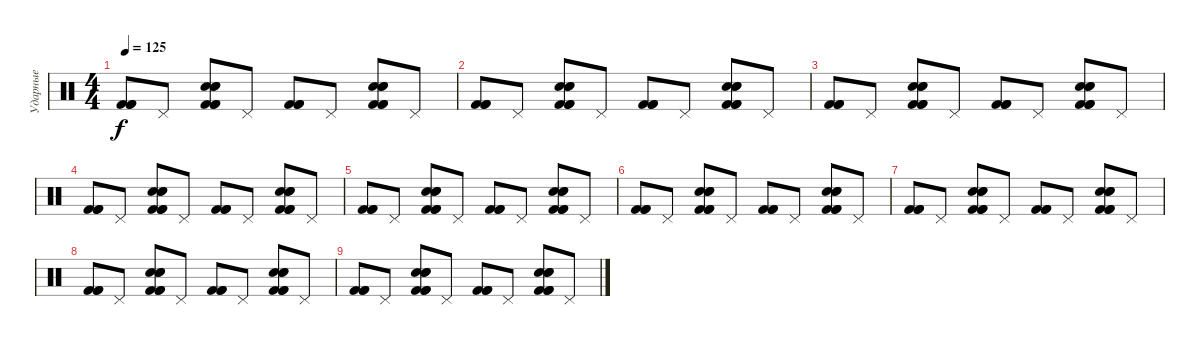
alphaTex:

\track ("Ударные" "Ударные") {instrument percussion}
\staff {score}
\articulation defaults
\ts (4 4)
\tempo 125
\clef neutral
\ks c
("Kick (hit) 2" "Kick (hit) 2" "Kick (hit) 2").8{dy f} "Pedal Hi-Hat (hit)".8 ("Snare (hit) 2" "Kick (hit) 2" "Snare (hit) 2" "Kick (hit) 2" "Snare (hit) 2" "Kick (hit) 2").8 "Pedal Hi-Hat (hit)".8 ("Kick (hit) 2" "Kick (hit) 2" "Kick (hit) 2").8 "Pedal Hi-Hat (hit)".8 ("Snare (hit) 2" "Kick (hit) 2" "Snare (hit) 2" "Kick (hit) 2" "Snare (hit) 2" "Kick (hit) 2").8 "Pedal Hi-Hat (hit)".8 |
("Kick (hit) 2" "Kick (hit) 2" "Kick (hit) 2").8 "Pedal Hi-Hat (hit)".8 ("Snare (hit) 2" "Kick (hit) 2" "Snare (hit) 2" "Kick (hit) 2" "Snare (hit) 2" "Kick (hit) 2").8 "Pedal Hi-Hat (hit)".8 ("Kick (hit) 2" "Kick (hit) 2" "Kick (hit) 2").8 "Pedal Hi-Hat (hit)".8 ("Snare (hit) 2" "Kick (hit) 2" "Snare (hit) 2" "Kick (hit) 2" "Snare (hit) 2" "Kick (hit) 2").8 "Pedal Hi-Hat (hit)".8 |
("Kick (hit) 2" "Kick (hit) 2" "Kick (hit) 2").8 "Pedal Hi-Hat (hit)".8 ("Snare (hit) 2" "Kick (hit) 2" "Snare (hit) 2" "Kick (hit) 2" "Snare (hit) 2" "Kick (hit) 2").8 "Pedal Hi-Hat (hit)".8 ("Kick (hit) 2" "Kick (hit) 2" "Kick (hit) 2").8 "Pedal Hi-Hat (hit)".8 ("Snare (hit) 2" "Kick (hit) 2" "Snare (hit) 2" "Kick (hit) 2" "Snare (hit) 2" "Kick (hit) 2").8 "Pedal Hi-Hat (hit)".8 |
("Kick (hit) 2" "Kick (hit) 2" "Kick (hit) 2").8 "Pedal Hi-Hat (hit)".8 ("Snare (hit) 2" "Kick (hit) 2" "Snare (hit) 2" "Kick (hit) 2" "Snare (hit) 2" "Kick (hit) 2").8 "Pedal Hi-Hat (hit)".8 ("Kick (hit) 2" "Kick (hit) 2" "Kick (hit) 2").8 "Pedal Hi-Hat (hit)".8 ("Snare (hit) 2" "Kick (hit) 2" "Snare (hit) 2" "Kick (hit) 2" "Snare (hit) 2" "Kick (hit) 2").8 "Pedal Hi-Hat (hit)".8 |
("Kick (hit) 2" "Kick (hit) 2" "Kick (hit) 2").8 "Pedal Hi-Hat (hit)".8 ("Snare (hit) 2" "Kick (hit) 2" "Snare (hit) 2" "Kick (hit) 2" "Snare (hit) 2" "Kick (hit) 2").8 "Pedal Hi-Hat (hit)".8 ("Kick (hit) 2" "Kick (hit) 2" "Kick (hit) 2").8 "Pedal Hi-Hat (hit)".8 ("Snare (hit) 2" "Kick (hit) 2" "Snare (hit) 2" "Kick (hit) 2" "Snare (hit) 2" "Kick (hit) 2").8 "Pedal Hi-Hat (hit)".8 |
("Kick (hit) 2" "Kick (hit) 2" "Kick (hit) 2").8 "Pedal Hi-Hat (hit)".8 ("Snare (hit) 2" "Kick (hit) 2" "Snare (hit) 2" "Kick (hit) 2" "Snare (hit) 2" "Kick (hit) 2").8 "Pedal Hi-Hat (hit)".8 ("Kick (hit) 2" "Kick (hit) 2" "Kick (hit) 2").8 "Pedal Hi-Hat (hit)".8 ("Snare (hit) 2" "Kick (hit) 2" "Snare (hit) 2" "Kick (hit) 2" "Snare (hit) 2" "Kick (hit) 2").8 "Pedal Hi-Hat (hit)".8 |
("Kick (hit) 2" "Kick (hit) 2" "Kick (hit) 2").8 "Pedal Hi-Hat (hit)".8 ("Snare (hit) 2" "Kick (hit) 2" "Snare (hit) 2" "Kick (hit) 2" "Snare (hit) 2" "Kick (hit) 2").8 "Pedal Hi-Hat (hit)".8 ("Kick (hit) 2" "Kick (hit) 2" "Kick (hit) 2").8 "Pedal Hi-Hat (hit)".8 ("Snare (hit) 2" "Kick (hit) 2" "Snare (hit) 2" "Kick (hit) 2" "Snare (hit) 2" "Kick (hit) 2").8 "Pedal Hi-Hat (hit)".8 |
("Kick (hit) 2" "Kick (hit) 2" "Kick (hit) 2").8 "Pedal Hi-Hat (hit)".8 ("Snare (hit) 2" "Kick (hit) 2" "Snare (hit) 2" "Kick (hit) 2" "Snare (hit) 2" "Kick (hit) 2").8 "Pedal Hi-Hat (hit)".8 ("Kick (hit) 2" "Kick (hit) 2" "Kick (hit) 2").8 "Pedal Hi-Hat (hit)".8 ("Snare (hit) 2" "Kick (hit) 2" "Snare (hit) 2" "Kick (hit) 2" "Snare (hit) 2" "Kick (hit) 2").8 "Pedal Hi-Hat (hit)".8 |
("Kick (hit) 2" "Kick (hit) 2" "Kick (hit) 2").8 "Pedal Hi-Hat (hit)".8 ("Snare (hit) 2" "Kick (hit) 2" "Snare (hit) 2" "Kick (hit) 2" "Snare (hit) 2" "Kick (hit) 2").8 "Pedal Hi-Hat (hit)".8 ("Kick (hit) 2" "Kick (hit) 2" "Kick (hit) 2").8 "Pedal Hi-Hat (hit)".8 ("Snare (hit) 2" "Kick (hit) 2" "Snare (hit) 2" "Kick (hit) 2" "Snare (hit) 2" "Kick (hit) 2").8 "Pedal Hi-Hat (hit)".8
